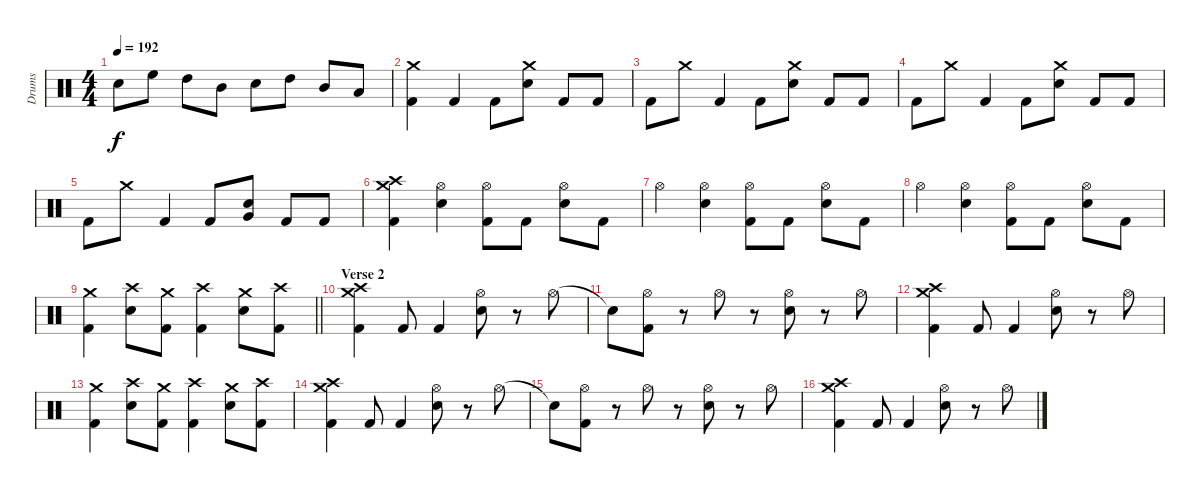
\track ("Drums" "Drums") {instrument percussion}
\staff {score}
\articulation defaults
\ts (4 4)
\tempo 192
\clef neutral
\ks c "Electric Snare (hit)".8{dy f} "High Floor Tom (hit)".8 "High Tom (hit)".8 "Mid Tom (hit)".8 "Electric Snare (hit)".8 "High Tom (hit)".8 "Mid Tom (hit)".8 "Low Tom (hit)".8
|
("Crash medium (hit)" "Kick (hit) 2").4 "Kick (hit) 2".4 "Kick (hit) 2".8 ("Crash medium (hit)" "Electric Snare (hit)").8 "Kick (hit) 2".8 "Kick (hit) 2".8 |
"Kick (hit) 2".8 "Crash medium (hit)".8 "Kick (hit) 2".4 "Kick (hit) 2".8 ("Crash medium (hit)" "Electric Snare (hit)").8 "Kick (hit) 2".8 "Kick (hit) 2".8 |
"Kick (hit) 2".8 "Crash medium (hit)".8 "Kick (hit) 2".4 "Kick (hit) 2".8 ("Crash medium (hit)" "Electric Snare (hit)").8 "Kick (hit) 2".8 "Kick (hit) 2".8 |
"Kick (hit) 2".8 "Crash medium (hit)".8 "Kick (hit) 2".4 "Kick (hit) 2".8 ("Very Low Tom (hit)" "Electric Snare (hit)").8 "Kick (hit) 2".8 "Kick (hit) 2".8 |
("Crash medium (hit)" "Crash high (hit)" "Kick (hit) 2").4 ("Hi-Hat (open)" "Electric Snare (hit)").4 ("Hi-Hat (open)" "Kick (hit) 2").8 "Kick (hit) 2".8 ("Hi-Hat (open)" "Electric Snare (hit)").8 "Kick (hit) 2".8 |
"Hi-Hat (open)".4 ("Hi-Hat (open)" "Electric Snare (hit)").4 ("Hi-Hat (open)" "Kick (hit) 2").8 "Kick (hit) 2".8 ("Hi-Hat (open)" "Electric Snare (hit)").8 "Kick (hit) 2".8 |
"Hi-Hat (open)".4 ("Hi-Hat (open)" "Electric Snare (hit)").4 ("Hi-Hat (open)" "Kick (hit) 2").8 "Kick (hit) 2".8 ("Hi-Hat (open)" "Electric Snare (hit)").8 "Kick (hit) 2".8 |
\barLineRight lightlight
("Crash medium (hit)" "Kick (hit) 2").4 ("Crash high (hit)" "Electric Snare (hit)").8 ("Crash medium (hit)" "Kick (hit) 2").8 ("Crash high (hit)" "Kick (hit) 2").4 ("Crash medium (hit)" "Electric Snare (hit)").8 ("Crash high (hit)" "Kick (hit) 2").8 |
\section ("" "Verse 2")
("Crash medium (hit)" "Crash high (hit)" "Kick (hit) 2").4 "Kick (hit) 2".8 "Kick (hit) 2".4 ("Hi-Hat (open)" "Electric Snare (hit)").8 r.8 "Hi-Hat (open)".8 |
"Snare (hit)"{t}.8 ("Hi-Hat (open)" "Kick (hit) 2").8 r.8 "Hi-Hat (open)".8 r.8 ("Hi-Hat (open)" "Electric Snare (hit)").8 r.8 "Hi-Hat (open)".8 |
("Crash medium (hit)" "Crash high (hit)" "Kick (hit) 2").4 "Kick (hit) 2".8 "Kick (hit) 2".4 ("Hi-Hat (open)" "Electric Snare (hit)").8 r.8 "Hi-Hat (open)".8 |
("Crash medium (hit)" "Kick (hit) 2").4 ("Crash high (hit)" "Electric Snare (hit)").8 ("Crash medium (hit)" "Kick (hit) 2").8 ("Crash high (hit)" "Kick (hit) 2").4 ("Crash medium (hit)" "Electric Snare (hit)").8 ("Crash high (hit)" "Kick (hit) 2").8 |
("Crash medium (hit)" "Crash high (hit)" "Kick (hit) 2").4 "Kick (hit) 2".8 "Kick (hit) 2".4 ("Hi-Hat (open)" "Electric Snare (hit)").8 r.8 "Hi-Hat (open)".8 |
"Snare (hit)"{t}.8 ("Hi-Hat (open)" "Kick (hit) 2").8 r.8 "Hi-Hat (open)".8 r.8 ("Hi-Hat (open)" "Electric Snare (hit)").8 r.8 "Hi-Hat (open)".8 |
("Crash medium (hit)" "Crash high (hit)" "Kick (hit) 2").4 "Kick (hit) 2".8 "Kick (hit) 2".4 ("Hi-Hat (open)" "Electric Snare (hit)").8 r.8 "Hi-Hat (open)".8
